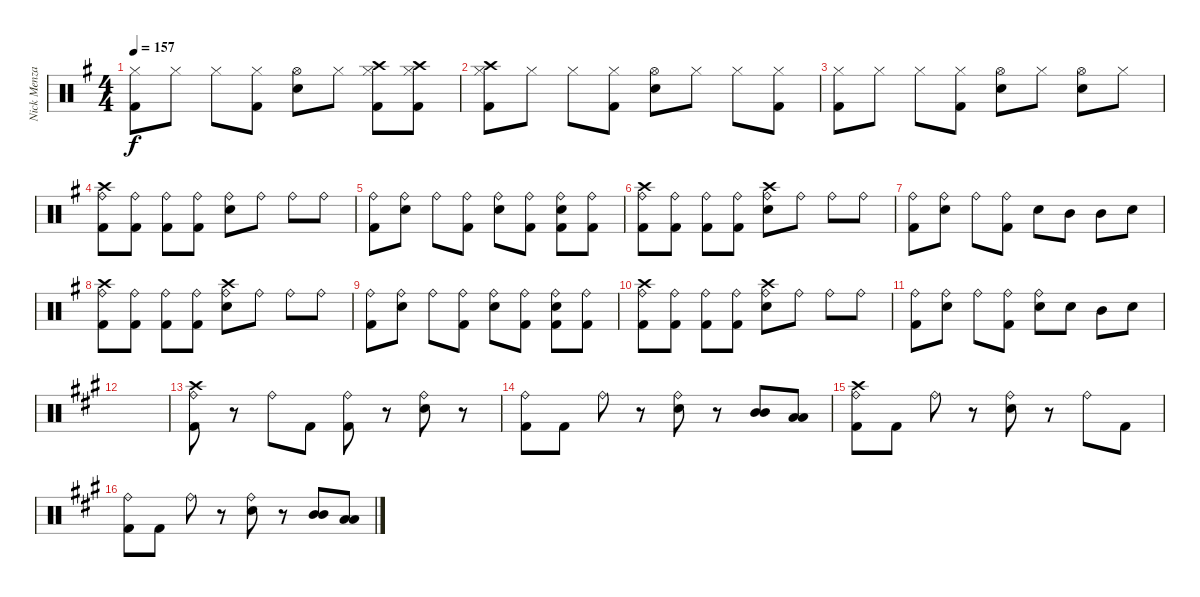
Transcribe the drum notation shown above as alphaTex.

\track ("Nick Menza" "Nick Menza") {instrument percussion}
\staff {score}
\articulation defaults
\ts (4 4)
\tempo 157
\clef neutral
\ks g
("Hi-Hat (closed)" "Kick (hit) 2").8{dy f} "Hi-Hat (closed)".8 "Hi-Hat (closed)".8 ("Hi-Hat (closed)" "Kick (hit) 2").8 ("Hi-Hat (open)" "Snare (hit) 2").8 "Hi-Hat (closed)".8 ("Hi-Hat (closed)" "Kick (hit) 2" "Crash high (hit)").8 ("Hi-Hat (closed)" "Kick (hit) 2" "Crash high (hit)").8 |
("Hi-Hat (closed)" "Crash high (hit)" "Kick (hit) 2").8 "Hi-Hat (closed)".8 "Hi-Hat (closed)".8 ("Hi-Hat (closed)" "Kick (hit) 2").8 ("Hi-Hat (open)" "Snare (hit) 2").8 "Hi-Hat (closed)".8 "Hi-Hat (closed)".8 ("Hi-Hat (closed)" "Kick (hit) 2").8 |
("Hi-Hat (closed)" "Kick (hit) 2").8 "Hi-Hat (closed)".8 "Hi-Hat (closed)".8 ("Hi-Hat (closed)" "Kick (hit) 2").8 ("Hi-Hat (open)" "Snare (hit) 2").8 "Hi-Hat (closed)".8 ("Hi-Hat (open)" "Snare (hit) 2").8 "Hi-Hat (closed)".8 |
("Ride (bell)" "Kick (hit) 2" "Crash high (hit)").8 ("Ride (bell)" "Kick (hit) 2").8 ("Ride (bell)" "Kick (hit) 2").8 ("Ride (bell)" "Kick (hit) 2").8 ("Ride (bell)" "Snare (hit) 2").8 "Ride (bell)".8 "Ride (bell)".8 "Ride (bell)".8 |
("Ride (bell)" "Kick (hit) 2").8 ("Ride (bell)" "Snare (hit) 2").8 "Ride (bell)".8 ("Ride (bell)" "Kick (hit) 2").8 ("Ride (bell)" "Snare (hit) 2").8 ("Ride (bell)" "Kick (hit) 2").8 ("Ride (bell)" "Kick (hit) 2" "Snare (hit) 2").8 ("Ride (bell)" "Kick (hit) 2").8 |
("Ride (bell)" "Kick (hit) 2" "Crash high (hit)").8 ("Ride (bell)" "Kick (hit) 2").8 ("Ride (bell)" "Kick (hit) 2").8 ("Ride (bell)" "Kick (hit) 2").8 ("Ride (bell)" "Snare (hit) 2" "Crash high (hit)").8 "Ride (bell)".8 "Ride (bell)".8 "Ride (bell)".8 |
("Ride (bell)" "Kick (hit) 2").8 ("Ride (bell)" "Snare (hit) 2").8 "Ride (bell)".8 ("Ride (bell)" "Kick (hit) 2").8 "Snare (hit) 2".8 "Mid Tom (hit)".8 "Mid Tom (hit)".8 "Snare (hit) 2".8 |
("Ride (bell)" "Kick (hit) 2" "Crash high (hit)").8 ("Ride (bell)" "Kick (hit) 2").8 ("Ride (bell)" "Kick (hit) 2").8 ("Ride (bell)" "Kick (hit) 2").8 ("Ride (bell)" "Snare (hit) 2" "Crash high (hit)").8 "Ride (bell)".8 "Ride (bell)".8 "Ride (bell)".8 |
("Ride (bell)" "Kick (hit) 2").8 ("Ride (bell)" "Snare (hit) 2").8 "Ride (bell)".8 ("Ride (bell)" "Kick (hit) 2").8 ("Ride (bell)" "Snare (hit) 2").8 ("Ride (bell)" "Kick (hit) 2").8 ("Ride (bell)" "Kick (hit) 2" "Snare (hit) 2").8 ("Ride (bell)" "Kick (hit) 2").8 |
("Ride (bell)" "Kick (hit) 2" "Crash high (hit)").8 ("Ride (bell)" "Kick (hit) 2").8 ("Ride (bell)" "Kick (hit) 2").8 ("Ride (bell)" "Kick (hit) 2").8 ("Ride (bell)" "Snare (hit) 2" "Crash high (hit)").8 "Ride (bell)".8 "Ride (bell)".8 "Ride (bell)".8 |
("Ride (bell)" "Kick (hit) 2").8 ("Ride (bell)" "Snare (hit) 2").8 "Ride (bell)".8 ("Ride (bell)" "Kick (hit) 2").8 ("Ride (bell)" "Snare (hit) 2").8 "Snare (hit) 2".8 "Mid Tom (hit)".8 "Snare (hit) 2".8 |
\ks a
|
("Ride (bell)" "Kick (hit) 2" "Crash high (hit)").8 r.8 "Ride (bell)".8 "Kick (hit) 2".8 ("Ride (bell)" "Kick (hit) 2").8 r.8 ("Ride (bell)" "Snare (hit) 2").8 r.8 |
("Ride (bell)" "Kick (hit) 2").8 "Kick (hit) 2".8 "Ride (bell)".8 r.8 ("Ride (bell)" "Snare (hit) 2").8 r.8 ("Mid Tom (hit)" "Mid Tom (hit)").8 ("Low Tom (hit)" "Low Tom (hit)").8 |
("Ride (bell)" "Kick (hit) 2" "Crash high (hit)").8 "Kick (hit) 2".8 "Ride (bell)".8 r.8 ("Ride (bell)" "Snare (hit) 2").8 r.8 "Ride (bell)".8 "Kick (hit) 2".8 |
("Ride (bell)" "Kick (hit) 2").8 "Kick (hit) 2".8 "Ride (bell)".8 r.8 ("Ride (bell)" "Snare (hit) 2").8 r.8 ("Mid Tom (hit)" "Mid Tom (hit)").8 ("Low Tom (hit)" "Low Tom (hit)").8
